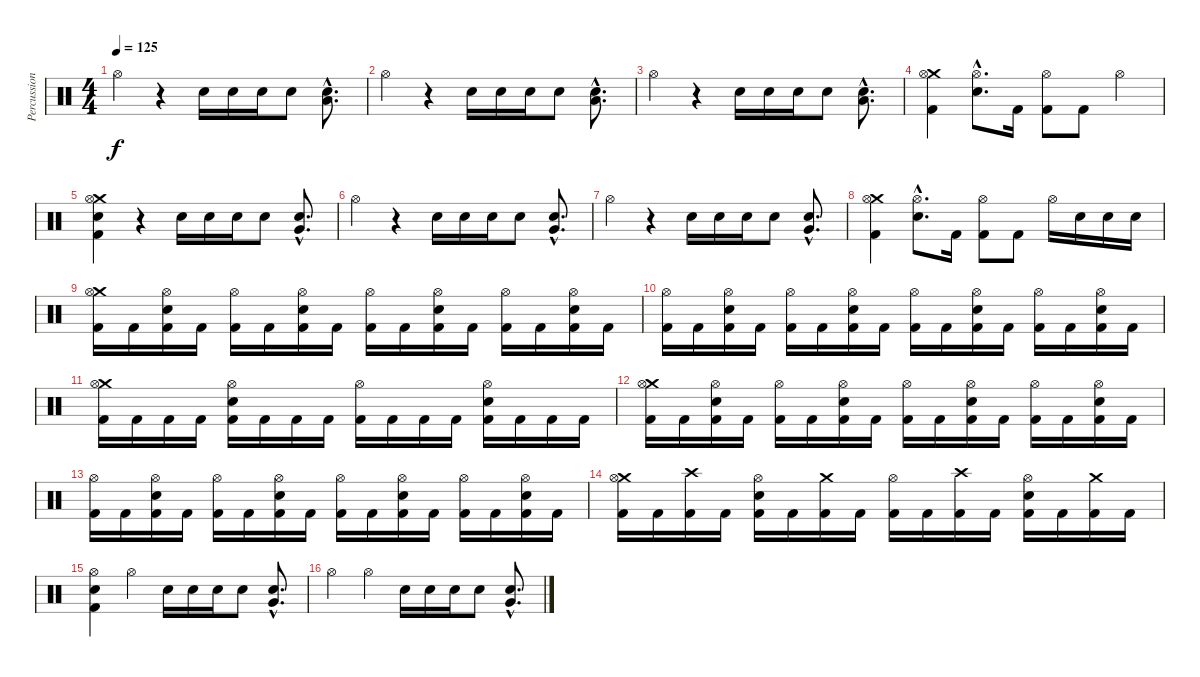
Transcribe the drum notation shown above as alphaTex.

\track ("Percussion" "Percussion") {instrument percussion}
\staff {score}
\articulation defaults
\ts (4 4)
\tempo 125
\clef neutral
\ks c "Hi-Hat (open)".4{dy f}
r.4 "Electric Snare (hit)".16 "Electric Snare (hit)".16 "Electric Snare (hit)".16 "Electric Snare (hit)".8 ("Low Floor Tom (hit)"{hac} "Electric Snare (hit)"{hac}).8{d} |
"Hi-Hat (open)".4 r.4 "Electric Snare (hit)".16 "Electric Snare (hit)".16 "Electric Snare (hit)".16 "Electric Snare (hit)".8 ("Low Floor Tom (hit)"{hac} "Electric Snare (hit)"{hac}).8{d} |
"Hi-Hat (open)".4 r.4 "Electric Snare (hit)".16 "Electric Snare (hit)".16 "Electric Snare (hit)".16 "Electric Snare (hit)".8 ("Low Floor Tom (hit)"{hac} "Electric Snare (hit)"{hac}).8{d} |
("Crash medium (hit)" "Hi-Hat (open)" "Kick (hit) 2").4 ("Hi-Hat (open)"{hac} "Electric Snare (hit)"{hac}).8{d} "Kick (hit) 2".16 ("Hi-Hat (open)" "Kick (hit) 2").8 "Kick (hit) 2".8 "Hi-Hat (open)".4 |
("Crash medium (hit)" "Hi-Hat (open)" "Electric Snare (hit)" "Kick (hit) 2").4 r.4 "Electric Snare (hit)".16 "Electric Snare (hit)".16 "Electric Snare (hit)".16 "Electric Snare (hit)".8 ("Very Low Tom (hit)"{hac} "Electric Snare (hit)"{hac}).8{d} |
"Hi-Hat (open)".4 r.4 "Electric Snare (hit)".16 "Electric Snare (hit)".16 "Electric Snare (hit)".16 "Electric Snare (hit)".8 ("Very Low Tom (hit)"{hac} "Electric Snare (hit)"{hac}).8{d} |
"Hi-Hat (open)".4 r.4 "Electric Snare (hit)".16 "Electric Snare (hit)".16 "Electric Snare (hit)".16 "Electric Snare (hit)".8 ("Very Low Tom (hit)"{hac} "Electric Snare (hit)"{hac}).8{d} |
("Crash medium (hit)" "Hi-Hat (open)" "Kick (hit) 2").4 ("Hi-Hat (open)"{hac} "Electric Snare (hit)"{hac}).8{d} "Kick (hit) 2".16 ("Hi-Hat (open)" "Kick (hit) 2").8 "Kick (hit) 2".8 "Hi-Hat (open)".16 "Electric Snare (hit)".16 "Electric Snare (hit)".16 "Electric Snare (hit)".16 |
("Crash medium (hit)" "Hi-Hat (open)" "Kick (hit) 2").16 "Kick (hit) 2".16 ("Hi-Hat (open)" "Electric Snare (hit)" "Kick (hit) 2").16 "Kick (hit) 2".16 ("Hi-Hat (open)" "Kick (hit) 2").16 "Kick (hit) 2".16 ("Hi-Hat (open)" "Electric Snare (hit)" "Kick (hit) 2").16 "Kick (hit) 2".16 ("Hi-Hat (open)" "Kick (hit) 2").16 "Kick (hit) 2".16 ("Hi-Hat (open)" "Electric Snare (hit)" "Kick (hit) 2").16 "Kick (hit) 2".16 ("Hi-Hat (open)" "Kick (hit) 2").16 "Kick (hit) 2".16 ("Hi-Hat (open)" "Electric Snare (hit)" "Kick (hit) 2").16 "Kick (hit) 2".16 |
("Hi-Hat (open)" "Kick (hit) 2").16 "Kick (hit) 2".16 ("Hi-Hat (open)" "Electric Snare (hit)" "Kick (hit) 2").16 "Kick (hit) 2".16 ("Hi-Hat (open)" "Kick (hit) 2").16 "Kick (hit) 2".16 ("Hi-Hat (open)" "Electric Snare (hit)" "Kick (hit) 2").16 "Kick (hit) 2".16 ("Hi-Hat (open)" "Kick (hit) 2").16 "Kick (hit) 2".16 ("Hi-Hat (open)" "Electric Snare (hit)" "Kick (hit) 2").16 "Kick (hit) 2".16 ("Hi-Hat (open)" "Kick (hit) 2").16 "Kick (hit) 2".16 ("Hi-Hat (open)" "Electric Snare (hit)" "Kick (hit) 2").16 "Kick (hit) 2".16 |
("Crash medium (hit)" "Hi-Hat (open)" "Kick (hit) 2").16 "Kick (hit) 2".16 "Kick (hit) 2".16 "Kick (hit) 2".16 ("Hi-Hat (open)" "Electric Snare (hit)" "Kick (hit) 2").16 "Kick (hit) 2".16 "Kick (hit) 2".16 "Kick (hit) 2".16 ("Hi-Hat (open)" "Kick (hit) 2").16 "Kick (hit) 2".16 "Kick (hit) 2".16 "Kick (hit) 2".16 ("Hi-Hat (open)" "Electric Snare (hit)" "Kick (hit) 2").16 "Kick (hit) 2".16 "Kick (hit) 2".16 "Kick (hit) 2".16 |
("Crash medium (hit)" "Hi-Hat (open)" "Kick (hit) 2").16 "Kick (hit) 2".16 ("Hi-Hat (open)" "Electric Snare (hit)" "Kick (hit) 2").16 "Kick (hit) 2".16 ("Hi-Hat (open)" "Kick (hit) 2").16 "Kick (hit) 2".16 ("Hi-Hat (open)" "Electric Snare (hit)" "Kick (hit) 2").16 "Kick (hit) 2".16 ("Hi-Hat (open)" "Kick (hit) 2").16 "Kick (hit) 2".16 ("Hi-Hat (open)" "Electric Snare (hit)" "Kick (hit) 2").16 "Kick (hit) 2".16 ("Hi-Hat (open)" "Kick (hit) 2").16 "Kick (hit) 2".16 ("Hi-Hat (open)" "Electric Snare (hit)" "Kick (hit) 2").16 "Kick (hit) 2".16 |
("Hi-Hat (open)" "Kick (hit) 2").16 "Kick (hit) 2".16 ("Hi-Hat (open)" "Electric Snare (hit)" "Kick (hit) 2").16 "Kick (hit) 2".16 ("Hi-Hat (open)" "Kick (hit) 2").16 "Kick (hit) 2".16 ("Hi-Hat (open)" "Electric Snare (hit)" "Kick (hit) 2").16 "Kick (hit) 2".16 ("Hi-Hat (open)" "Kick (hit) 2").16 "Kick (hit) 2".16 ("Hi-Hat (open)" "Electric Snare (hit)" "Kick (hit) 2").16 "Kick (hit) 2".16 ("Hi-Hat (open)" "Kick (hit) 2").16 "Kick (hit) 2".16 ("Hi-Hat (open)" "Electric Snare (hit)" "Kick (hit) 2").16 "Kick (hit) 2".16 |
("Crash medium (hit)" "Hi-Hat (open)" "Kick (hit) 2").16 "Kick (hit) 2".16 ("Crash high (hit)" "Kick (hit) 2").16 "Kick (hit) 2".16 ("Hi-Hat (open)" "Electric Snare (hit)" "Kick (hit) 2").16 "Kick (hit) 2".16 ("Crash medium (hit)" "Kick (hit) 2").16 "Kick (hit) 2".16 ("Hi-Hat (open)" "Kick (hit) 2").16 "Kick (hit) 2".16 ("Crash high (hit)" "Kick (hit) 2").16 "Kick (hit) 2".16 ("Hi-Hat (open)" "Electric Snare (hit)" "Kick (hit) 2").16 "Kick (hit) 2".16 ("Crash medium (hit)" "Kick (hit) 2").16 "Kick (hit) 2".16 |
("Hi-Hat (open)" "Electric Snare (hit)" "Kick (hit) 2").4 "Hi-Hat (open)".4 "Electric Snare (hit)".16 "Electric Snare (hit)".16 "Electric Snare (hit)".16 "Electric Snare (hit)".8 ("Very Low Tom (hit)"{hac} "Electric Snare (hit)"{hac}).8{d} |
"Hi-Hat (open)".4 "Hi-Hat (open)".4 "Electric Snare (hit)".16 "Electric Snare (hit)".16 "Electric Snare (hit)".16 "Electric Snare (hit)".8 ("Very Low Tom (hit)"{hac} "Electric Snare (hit)"{hac}).8{d}
